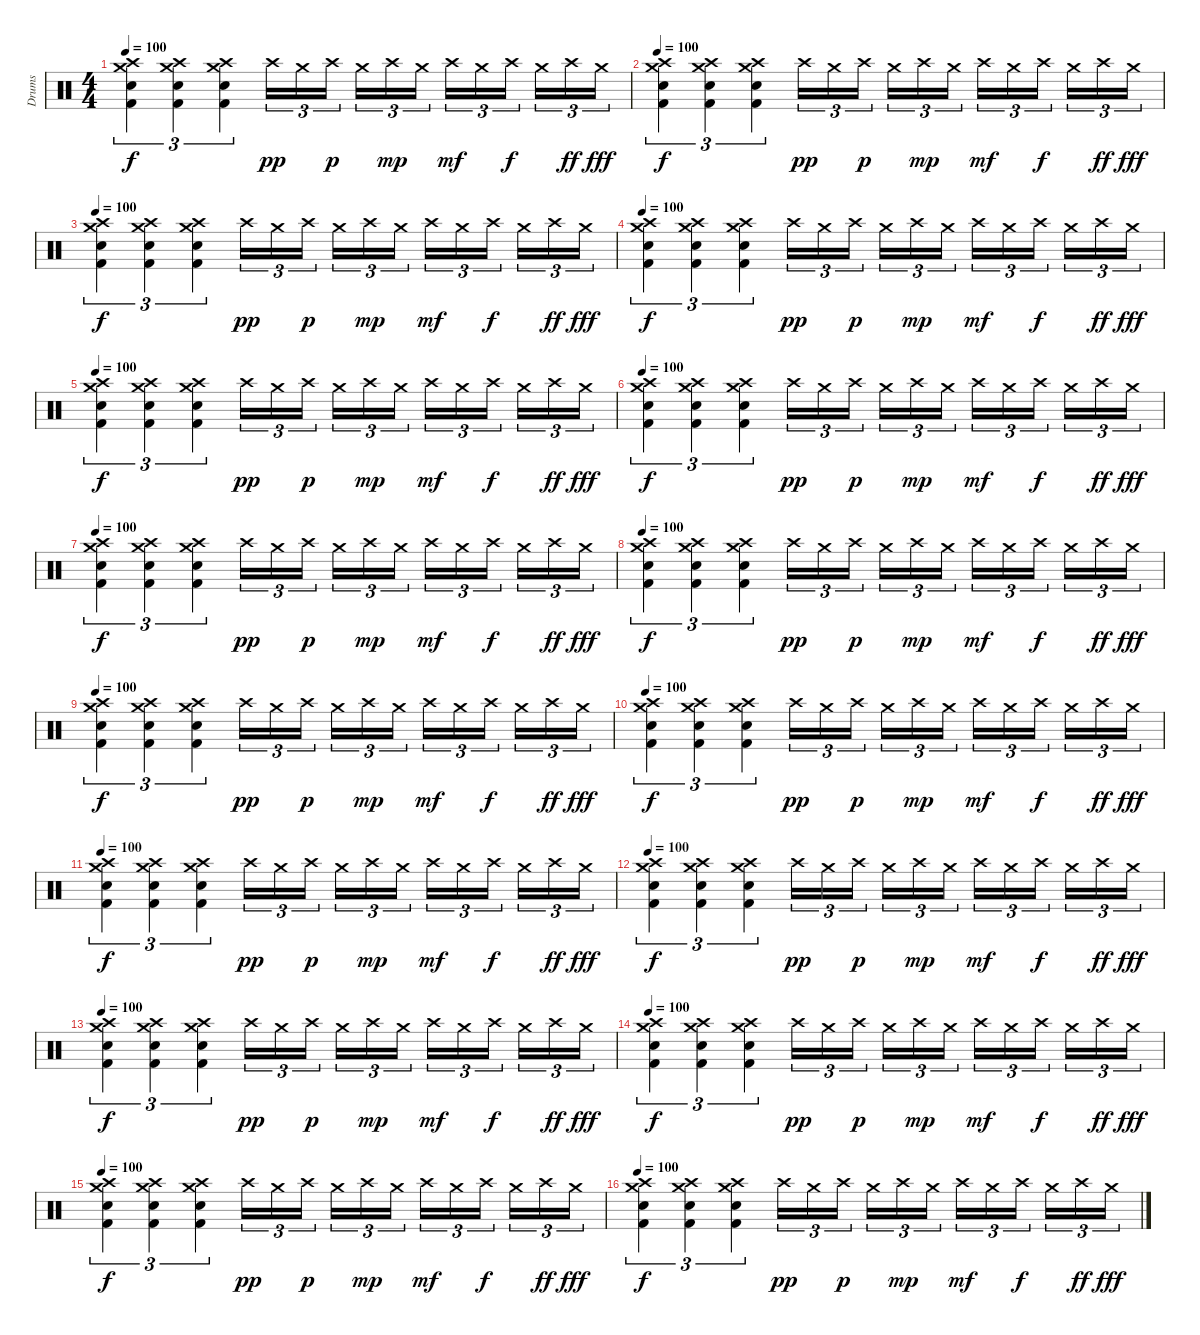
\track ("Drums" "Drums") {instrument percussion}
\staff {score}
\articulation defaults
\ts (4 4)
\tempo 100
\clef neutral
\ks c
("Crash high (hit)" "Crash medium (hit)" "Snare (hit) 2" "Kick (hit) 2").4{tu (3 2) dy f} ("Crash high (hit)" "Crash medium (hit)" "Snare (hit) 2" "Kick (hit) 2").4{tu (3 2)} ("Crash high (hit)" "Crash medium (hit)" "Snare (hit) 2" "Kick (hit) 2").4{tu (3 2)} "Crash high (hit)".16{tu (3 2) dy pp} "Crash medium (hit)".16{tu (3 2)} "Crash high (hit)".16{tu (3 2) dy p} "Crash medium (hit)".16{tu (3 2)} "Crash high (hit)".16{tu (3 2) dy mp} "Crash medium (hit)".16{tu (3 2)} "Crash high (hit)".16{tu (3 2) dy mf} "Crash medium (hit)".16{tu (3 2)} "Crash high (hit)".16{tu (3 2) dy f} "Crash medium (hit)".16{tu (3 2)} "Crash high (hit)".16{tu (3 2) dy ff} "Crash medium (hit)".16{tu (3 2) dy fff} |
\tempo 100
("Crash high (hit)" "Crash medium (hit)" "Snare (hit) 2" "Kick (hit) 2").4{tu (3 2) dy f} ("Crash high (hit)" "Crash medium (hit)" "Snare (hit) 2" "Kick (hit) 2").4{tu (3 2)} ("Crash high (hit)" "Crash medium (hit)" "Snare (hit) 2" "Kick (hit) 2").4{tu (3 2)} "Crash high (hit)".16{tu (3 2) dy pp} "Crash medium (hit)".16{tu (3 2)} "Crash high (hit)".16{tu (3 2) dy p} "Crash medium (hit)".16{tu (3 2)} "Crash high (hit)".16{tu (3 2) dy mp} "Crash medium (hit)".16{tu (3 2)} "Crash high (hit)".16{tu (3 2) dy mf} "Crash medium (hit)".16{tu (3 2)} "Crash high (hit)".16{tu (3 2) dy f} "Crash medium (hit)".16{tu (3 2)} "Crash high (hit)".16{tu (3 2) dy ff} "Crash medium (hit)".16{tu (3 2) dy fff} |
\tempo 100
("Crash high (hit)" "Crash medium (hit)" "Snare (hit) 2" "Kick (hit) 2").4{tu (3 2) dy f} ("Crash high (hit)" "Crash medium (hit)" "Snare (hit) 2" "Kick (hit) 2").4{tu (3 2)} ("Crash high (hit)" "Crash medium (hit)" "Snare (hit) 2" "Kick (hit) 2").4{tu (3 2)} "Crash high (hit)".16{tu (3 2) dy pp} "Crash medium (hit)".16{tu (3 2)} "Crash high (hit)".16{tu (3 2) dy p} "Crash medium (hit)".16{tu (3 2)} "Crash high (hit)".16{tu (3 2) dy mp} "Crash medium (hit)".16{tu (3 2)} "Crash high (hit)".16{tu (3 2) dy mf} "Crash medium (hit)".16{tu (3 2)} "Crash high (hit)".16{tu (3 2) dy f} "Crash medium (hit)".16{tu (3 2)} "Crash high (hit)".16{tu (3 2) dy ff} "Crash medium (hit)".16{tu (3 2) dy fff} |
\tempo 100
("Crash high (hit)" "Crash medium (hit)" "Snare (hit) 2" "Kick (hit) 2").4{tu (3 2) dy f} ("Crash high (hit)" "Crash medium (hit)" "Snare (hit) 2" "Kick (hit) 2").4{tu (3 2)} ("Crash high (hit)" "Crash medium (hit)" "Snare (hit) 2" "Kick (hit) 2").4{tu (3 2)} "Crash high (hit)".16{tu (3 2) dy pp} "Crash medium (hit)".16{tu (3 2)} "Crash high (hit)".16{tu (3 2) dy p} "Crash medium (hit)".16{tu (3 2)} "Crash high (hit)".16{tu (3 2) dy mp} "Crash medium (hit)".16{tu (3 2)} "Crash high (hit)".16{tu (3 2) dy mf} "Crash medium (hit)".16{tu (3 2)} "Crash high (hit)".16{tu (3 2) dy f} "Crash medium (hit)".16{tu (3 2)} "Crash high (hit)".16{tu (3 2) dy ff} "Crash medium (hit)".16{tu (3 2) dy fff} |
\tempo 100
("Crash high (hit)" "Crash medium (hit)" "Snare (hit) 2" "Kick (hit) 2").4{tu (3 2) dy f} ("Crash high (hit)" "Crash medium (hit)" "Snare (hit) 2" "Kick (hit) 2").4{tu (3 2)} ("Crash high (hit)" "Crash medium (hit)" "Snare (hit) 2" "Kick (hit) 2").4{tu (3 2)} "Crash high (hit)".16{tu (3 2) dy pp} "Crash medium (hit)".16{tu (3 2)} "Crash high (hit)".16{tu (3 2) dy p} "Crash medium (hit)".16{tu (3 2)} "Crash high (hit)".16{tu (3 2) dy mp} "Crash medium (hit)".16{tu (3 2)} "Crash high (hit)".16{tu (3 2) dy mf} "Crash medium (hit)".16{tu (3 2)} "Crash high (hit)".16{tu (3 2) dy f} "Crash medium (hit)".16{tu (3 2)} "Crash high (hit)".16{tu (3 2) dy ff} "Crash medium (hit)".16{tu (3 2) dy fff} |
\tempo 100
("Crash high (hit)" "Crash medium (hit)" "Snare (hit) 2" "Kick (hit) 2").4{tu (3 2) dy f} ("Crash high (hit)" "Crash medium (hit)" "Snare (hit) 2" "Kick (hit) 2").4{tu (3 2)} ("Crash high (hit)" "Crash medium (hit)" "Snare (hit) 2" "Kick (hit) 2").4{tu (3 2)} "Crash high (hit)".16{tu (3 2) dy pp} "Crash medium (hit)".16{tu (3 2)} "Crash high (hit)".16{tu (3 2) dy p} "Crash medium (hit)".16{tu (3 2)} "Crash high (hit)".16{tu (3 2) dy mp} "Crash medium (hit)".16{tu (3 2)} "Crash high (hit)".16{tu (3 2) dy mf} "Crash medium (hit)".16{tu (3 2)} "Crash high (hit)".16{tu (3 2) dy f} "Crash medium (hit)".16{tu (3 2)} "Crash high (hit)".16{tu (3 2) dy ff} "Crash medium (hit)".16{tu (3 2) dy fff} |
\tempo 100
("Crash high (hit)" "Crash medium (hit)" "Snare (hit) 2" "Kick (hit) 2").4{tu (3 2) dy f} ("Crash high (hit)" "Crash medium (hit)" "Snare (hit) 2" "Kick (hit) 2").4{tu (3 2)} ("Crash high (hit)" "Crash medium (hit)" "Snare (hit) 2" "Kick (hit) 2").4{tu (3 2)} "Crash high (hit)".16{tu (3 2) dy pp} "Crash medium (hit)".16{tu (3 2)} "Crash high (hit)".16{tu (3 2) dy p} "Crash medium (hit)".16{tu (3 2)} "Crash high (hit)".16{tu (3 2) dy mp} "Crash medium (hit)".16{tu (3 2)} "Crash high (hit)".16{tu (3 2) dy mf} "Crash medium (hit)".16{tu (3 2)} "Crash high (hit)".16{tu (3 2) dy f} "Crash medium (hit)".16{tu (3 2)} "Crash high (hit)".16{tu (3 2) dy ff} "Crash medium (hit)".16{tu (3 2) dy fff} |
\tempo 100
("Crash high (hit)" "Crash medium (hit)" "Snare (hit) 2" "Kick (hit) 2").4{tu (3 2) dy f} ("Crash high (hit)" "Crash medium (hit)" "Snare (hit) 2" "Kick (hit) 2").4{tu (3 2)} ("Crash high (hit)" "Crash medium (hit)" "Snare (hit) 2" "Kick (hit) 2").4{tu (3 2)} "Crash high (hit)".16{tu (3 2) dy pp} "Crash medium (hit)".16{tu (3 2)} "Crash high (hit)".16{tu (3 2) dy p} "Crash medium (hit)".16{tu (3 2)} "Crash high (hit)".16{tu (3 2) dy mp} "Crash medium (hit)".16{tu (3 2)} "Crash high (hit)".16{tu (3 2) dy mf} "Crash medium (hit)".16{tu (3 2)} "Crash high (hit)".16{tu (3 2) dy f} "Crash medium (hit)".16{tu (3 2)} "Crash high (hit)".16{tu (3 2) dy ff} "Crash medium (hit)".16{tu (3 2) dy fff} |
\tempo 100
("Crash high (hit)" "Crash medium (hit)" "Snare (hit) 2" "Kick (hit) 2").4{tu (3 2) dy f} ("Crash high (hit)" "Crash medium (hit)" "Snare (hit) 2" "Kick (hit) 2").4{tu (3 2)} ("Crash high (hit)" "Crash medium (hit)" "Snare (hit) 2" "Kick (hit) 2").4{tu (3 2)} "Crash high (hit)".16{tu (3 2) dy pp} "Crash medium (hit)".16{tu (3 2)} "Crash high (hit)".16{tu (3 2) dy p} "Crash medium (hit)".16{tu (3 2)} "Crash high (hit)".16{tu (3 2) dy mp} "Crash medium (hit)".16{tu (3 2)} "Crash high (hit)".16{tu (3 2) dy mf} "Crash medium (hit)".16{tu (3 2)} "Crash high (hit)".16{tu (3 2) dy f} "Crash medium (hit)".16{tu (3 2)} "Crash high (hit)".16{tu (3 2) dy ff} "Crash medium (hit)".16{tu (3 2) dy fff} |
\tempo 100
("Crash high (hit)" "Crash medium (hit)" "Snare (hit) 2" "Kick (hit) 2").4{tu (3 2) dy f} ("Crash high (hit)" "Crash medium (hit)" "Snare (hit) 2" "Kick (hit) 2").4{tu (3 2)} ("Crash high (hit)" "Crash medium (hit)" "Snare (hit) 2" "Kick (hit) 2").4{tu (3 2)} "Crash high (hit)".16{tu (3 2) dy pp} "Crash medium (hit)".16{tu (3 2)} "Crash high (hit)".16{tu (3 2) dy p} "Crash medium (hit)".16{tu (3 2)} "Crash high (hit)".16{tu (3 2) dy mp} "Crash medium (hit)".16{tu (3 2)} "Crash high (hit)".16{tu (3 2) dy mf} "Crash medium (hit)".16{tu (3 2)} "Crash high (hit)".16{tu (3 2) dy f} "Crash medium (hit)".16{tu (3 2)} "Crash high (hit)".16{tu (3 2) dy ff} "Crash medium (hit)".16{tu (3 2) dy fff} |
\tempo 100
("Crash high (hit)" "Crash medium (hit)" "Snare (hit) 2" "Kick (hit) 2").4{tu (3 2) dy f} ("Crash high (hit)" "Crash medium (hit)" "Snare (hit) 2" "Kick (hit) 2").4{tu (3 2)} ("Crash high (hit)" "Crash medium (hit)" "Snare (hit) 2" "Kick (hit) 2").4{tu (3 2)} "Crash high (hit)".16{tu (3 2) dy pp} "Crash medium (hit)".16{tu (3 2)} "Crash high (hit)".16{tu (3 2) dy p} "Crash medium (hit)".16{tu (3 2)} "Crash high (hit)".16{tu (3 2) dy mp} "Crash medium (hit)".16{tu (3 2)} "Crash high (hit)".16{tu (3 2) dy mf} "Crash medium (hit)".16{tu (3 2)} "Crash high (hit)".16{tu (3 2) dy f} "Crash medium (hit)".16{tu (3 2)} "Crash high (hit)".16{tu (3 2) dy ff} "Crash medium (hit)".16{tu (3 2) dy fff} |
\tempo 100
("Crash high (hit)" "Crash medium (hit)" "Snare (hit) 2" "Kick (hit) 2").4{tu (3 2) dy f} ("Crash high (hit)" "Crash medium (hit)" "Snare (hit) 2" "Kick (hit) 2").4{tu (3 2)} ("Crash high (hit)" "Crash medium (hit)" "Snare (hit) 2" "Kick (hit) 2").4{tu (3 2)} "Crash high (hit)".16{tu (3 2) dy pp} "Crash medium (hit)".16{tu (3 2)} "Crash high (hit)".16{tu (3 2) dy p} "Crash medium (hit)".16{tu (3 2)} "Crash high (hit)".16{tu (3 2) dy mp} "Crash medium (hit)".16{tu (3 2)} "Crash high (hit)".16{tu (3 2) dy mf} "Crash medium (hit)".16{tu (3 2)} "Crash high (hit)".16{tu (3 2) dy f} "Crash medium (hit)".16{tu (3 2)} "Crash high (hit)".16{tu (3 2) dy ff} "Crash medium (hit)".16{tu (3 2) dy fff} |
\tempo 100
("Crash high (hit)" "Crash medium (hit)" "Snare (hit) 2" "Kick (hit) 2").4{tu (3 2) dy f} ("Crash high (hit)" "Crash medium (hit)" "Snare (hit) 2" "Kick (hit) 2").4{tu (3 2)} ("Crash high (hit)" "Crash medium (hit)" "Snare (hit) 2" "Kick (hit) 2").4{tu (3 2)} "Crash high (hit)".16{tu (3 2) dy pp} "Crash medium (hit)".16{tu (3 2)} "Crash high (hit)".16{tu (3 2) dy p} "Crash medium (hit)".16{tu (3 2)} "Crash high (hit)".16{tu (3 2) dy mp} "Crash medium (hit)".16{tu (3 2)} "Crash high (hit)".16{tu (3 2) dy mf} "Crash medium (hit)".16{tu (3 2)} "Crash high (hit)".16{tu (3 2) dy f} "Crash medium (hit)".16{tu (3 2)} "Crash high (hit)".16{tu (3 2) dy ff} "Crash medium (hit)".16{tu (3 2) dy fff} |
\tempo 100
("Crash high (hit)" "Crash medium (hit)" "Snare (hit) 2" "Kick (hit) 2").4{tu (3 2) dy f} ("Crash high (hit)" "Crash medium (hit)" "Snare (hit) 2" "Kick (hit) 2").4{tu (3 2)} ("Crash high (hit)" "Crash medium (hit)" "Snare (hit) 2" "Kick (hit) 2").4{tu (3 2)} "Crash high (hit)".16{tu (3 2) dy pp} "Crash medium (hit)".16{tu (3 2)} "Crash high (hit)".16{tu (3 2) dy p} "Crash medium (hit)".16{tu (3 2)} "Crash high (hit)".16{tu (3 2) dy mp} "Crash medium (hit)".16{tu (3 2)} "Crash high (hit)".16{tu (3 2) dy mf} "Crash medium (hit)".16{tu (3 2)} "Crash high (hit)".16{tu (3 2) dy f} "Crash medium (hit)".16{tu (3 2)} "Crash high (hit)".16{tu (3 2) dy ff} "Crash medium (hit)".16{tu (3 2) dy fff} |
\tempo 100
("Crash high (hit)" "Crash medium (hit)" "Snare (hit) 2" "Kick (hit) 2").4{tu (3 2) dy f} ("Crash high (hit)" "Crash medium (hit)" "Snare (hit) 2" "Kick (hit) 2").4{tu (3 2)} ("Crash high (hit)" "Crash medium (hit)" "Snare (hit) 2" "Kick (hit) 2").4{tu (3 2)} "Crash high (hit)".16{tu (3 2) dy pp} "Crash medium (hit)".16{tu (3 2)} "Crash high (hit)".16{tu (3 2) dy p} "Crash medium (hit)".16{tu (3 2)} "Crash high (hit)".16{tu (3 2) dy mp} "Crash medium (hit)".16{tu (3 2)} "Crash high (hit)".16{tu (3 2) dy mf} "Crash medium (hit)".16{tu (3 2)} "Crash high (hit)".16{tu (3 2) dy f} "Crash medium (hit)".16{tu (3 2)} "Crash high (hit)".16{tu (3 2) dy ff} "Crash medium (hit)".16{tu (3 2) dy fff} |
\tempo 100
("Crash high (hit)" "Crash medium (hit)" "Snare (hit) 2" "Kick (hit) 2").4{tu (3 2) dy f} ("Crash high (hit)" "Crash medium (hit)" "Snare (hit) 2" "Kick (hit) 2").4{tu (3 2)} ("Crash high (hit)" "Crash medium (hit)" "Snare (hit) 2" "Kick (hit) 2").4{tu (3 2)} "Crash high (hit)".16{tu (3 2) dy pp} "Crash medium (hit)".16{tu (3 2)} "Crash high (hit)".16{tu (3 2) dy p} "Crash medium (hit)".16{tu (3 2)} "Crash high (hit)".16{tu (3 2) dy mp} "Crash medium (hit)".16{tu (3 2)} "Crash high (hit)".16{tu (3 2) dy mf} "Crash medium (hit)".16{tu (3 2)} "Crash high (hit)".16{tu (3 2) dy f} "Crash medium (hit)".16{tu (3 2)} "Crash high (hit)".16{tu (3 2) dy ff} "Crash medium (hit)".16{tu (3 2) dy fff}
